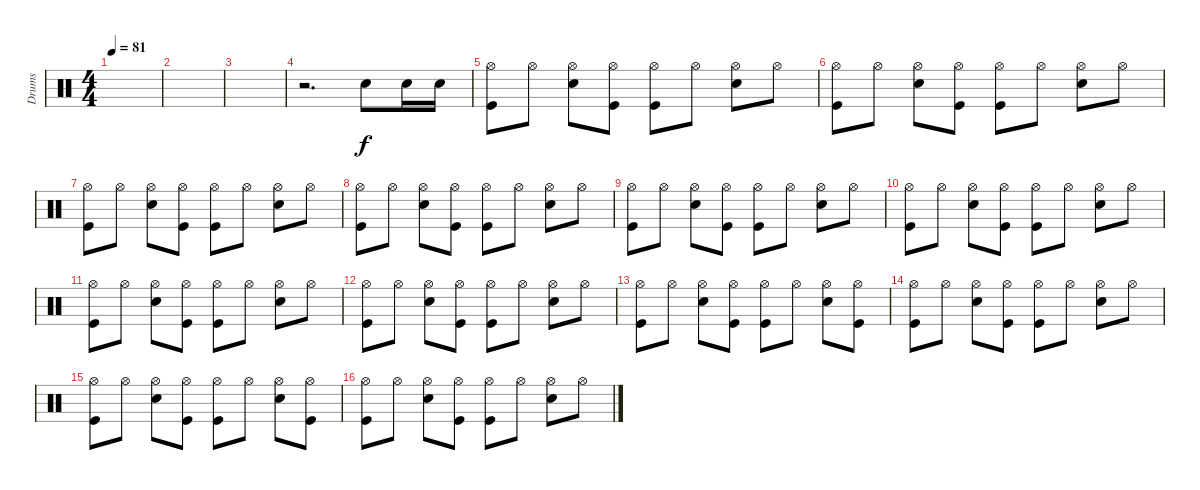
\track ("Drums" "Drums") {instrument percussion}
\staff {score}
\articulation defaults
\ts (4 4)
\tempo 81
\clef neutral
\ks c
|
|
|
r.2{d} "Snare (hit) 2".8 "Snare (hit) 2".16 "Snare (hit) 2".16 |
("Hi-Hat (open)" "Kick (hit)").8 "Hi-Hat (open)".8 ("Hi-Hat (open)" "Electric Snare (hit)").8 ("Hi-Hat (open)" "Kick (hit)").8 ("Hi-Hat (open)" "Kick (hit)").8 "Hi-Hat (open)".8 ("Hi-Hat (open)" "Electric Snare (hit)").8 "Hi-Hat (open)".8 |
("Hi-Hat (open)" "Kick (hit)").8 "Hi-Hat (open)".8 ("Hi-Hat (open)" "Electric Snare (hit)").8 ("Hi-Hat (open)" "Kick (hit)").8 ("Hi-Hat (open)" "Kick (hit)").8 "Hi-Hat (open)".8 ("Hi-Hat (open)" "Electric Snare (hit)").8 "Hi-Hat (open)".8 |
("Hi-Hat (open)" "Kick (hit)").8 "Hi-Hat (open)".8 ("Hi-Hat (open)" "Electric Snare (hit)").8 ("Hi-Hat (open)" "Kick (hit)").8 ("Hi-Hat (open)" "Kick (hit)").8 "Hi-Hat (open)".8 ("Hi-Hat (open)" "Electric Snare (hit)").8 "Hi-Hat (open)".8 |
("Hi-Hat (open)" "Kick (hit)").8 "Hi-Hat (open)".8 ("Hi-Hat (open)" "Electric Snare (hit)").8 ("Hi-Hat (open)" "Kick (hit)").8 ("Hi-Hat (open)" "Kick (hit)").8 "Hi-Hat (open)".8 ("Hi-Hat (open)" "Electric Snare (hit)").8 "Hi-Hat (open)".8 |
("Hi-Hat (open)" "Kick (hit)").8 "Hi-Hat (open)".8 ("Hi-Hat (open)" "Electric Snare (hit)").8 ("Hi-Hat (open)" "Kick (hit)").8 ("Hi-Hat (open)" "Kick (hit)").8 "Hi-Hat (open)".8 ("Hi-Hat (open)" "Electric Snare (hit)").8 "Hi-Hat (open)".8 |
("Hi-Hat (open)" "Kick (hit)").8 "Hi-Hat (open)".8 ("Hi-Hat (open)" "Electric Snare (hit)").8 ("Hi-Hat (open)" "Kick (hit)").8 ("Hi-Hat (open)" "Kick (hit)").8 "Hi-Hat (open)".8 ("Hi-Hat (open)" "Electric Snare (hit)").8 "Hi-Hat (open)".8 |
("Hi-Hat (open)" "Kick (hit)").8 "Hi-Hat (open)".8 ("Hi-Hat (open)" "Electric Snare (hit)").8 ("Hi-Hat (open)" "Kick (hit)").8 ("Hi-Hat (open)" "Kick (hit)").8 "Hi-Hat (open)".8 ("Hi-Hat (open)" "Electric Snare (hit)").8 "Hi-Hat (open)".8 |
("Hi-Hat (open)" "Kick (hit)").8 "Hi-Hat (open)".8 ("Hi-Hat (open)" "Electric Snare (hit)").8 ("Hi-Hat (open)" "Kick (hit)").8 ("Hi-Hat (open)" "Kick (hit)").8 "Hi-Hat (open)".8 ("Hi-Hat (open)" "Electric Snare (hit)").8 "Hi-Hat (open)".8 |
("Hi-Hat (open)" "Kick (hit)").8 "Hi-Hat (open)".8 ("Hi-Hat (open)" "Electric Snare (hit)").8 ("Hi-Hat (open)" "Kick (hit)").8 ("Hi-Hat (open)" "Kick (hit)").8 "Hi-Hat (open)".8 ("Hi-Hat (open)" "Electric Snare (hit)").8 ("Hi-Hat (open)" "Kick (hit)").8 |
("Hi-Hat (open)" "Kick (hit)").8 "Hi-Hat (open)".8 ("Hi-Hat (open)" "Electric Snare (hit)").8 ("Hi-Hat (open)" "Kick (hit)").8 ("Hi-Hat (open)" "Kick (hit)").8 "Hi-Hat (open)".8 ("Hi-Hat (open)" "Electric Snare (hit)").8 "Hi-Hat (open)".8 |
("Hi-Hat (open)" "Kick (hit)").8 "Hi-Hat (open)".8 ("Hi-Hat (open)" "Electric Snare (hit)").8 ("Hi-Hat (open)" "Kick (hit)").8 ("Hi-Hat (open)" "Kick (hit)").8 "Hi-Hat (open)".8 ("Hi-Hat (open)" "Electric Snare (hit)").8 ("Hi-Hat (open)" "Kick (hit)").8 |
("Hi-Hat (open)" "Kick (hit)").8 "Hi-Hat (open)".8 ("Hi-Hat (open)" "Electric Snare (hit)").8 ("Hi-Hat (open)" "Kick (hit)").8 ("Hi-Hat (open)" "Kick (hit)").8 "Hi-Hat (open)".8 ("Hi-Hat (open)" "Electric Snare (hit)").8 "Hi-Hat (open)".8
